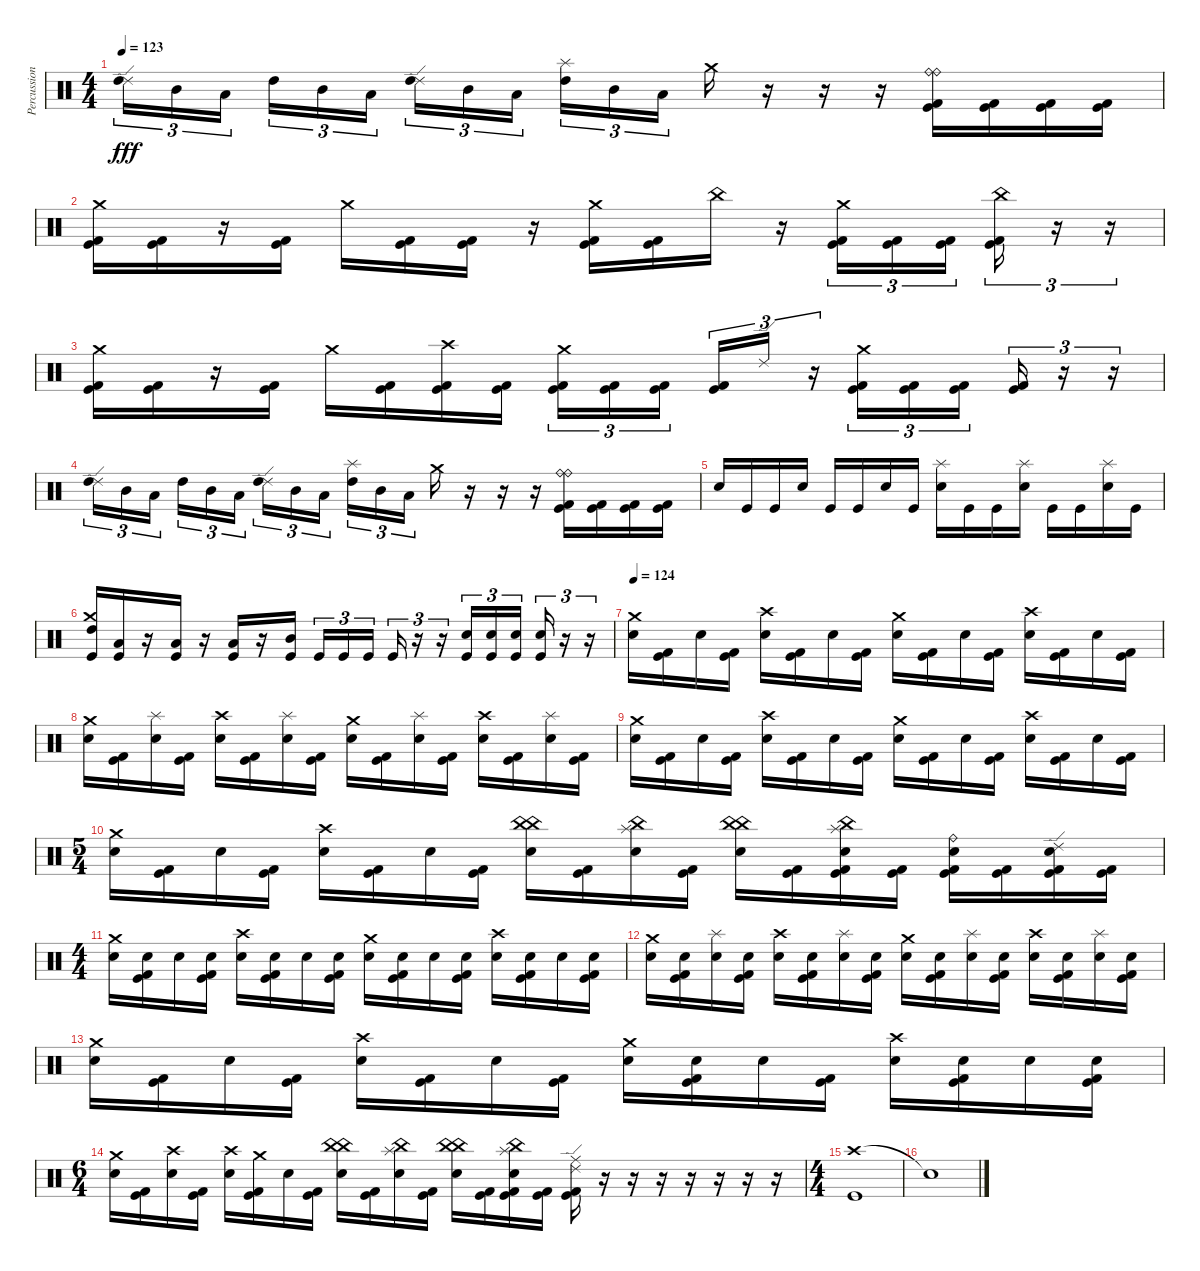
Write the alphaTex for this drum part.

\track ("Percussion" "Percussion") {instrument percussion}
\staff {score}
\articulation defaults
\ts (4 4)
\tempo 123
\clef neutral
\ks c
("Ride (edge) 2" "High Tom (hit)").16{tu (3 2) dy fff} "Mid Tom (hit)".16{tu (3 2)} "Low Tom (hit)".16{tu (3 2) beam splitsecondary} "High Tom (hit)".16{tu (3 2)} "Mid Tom (hit)".16{tu (3 2)} "Low Tom (hit)".16{tu (3 2)} ("Ride (edge) 2" "High Tom (hit)").16{tu (3 2)} "Mid Tom (hit)".16{tu (3 2)} "Low Tom (hit)".16{tu (3 2) beam splitsecondary} ("Splash (hit)" "High Tom (hit)").16{tu (3 2)} "Mid Tom (hit)".16{tu (3 2)} "Low Tom (hit)".16{tu (3 2)} "Crash medium (hit)".16 r.16 r.16 r.16 ("Ride (bell)" "Ride (bell)" "Kick (hit) 2" "Kick (hit)").16 ("Kick (hit) 2" "Kick (hit)").16 ("Kick (hit) 2" "Kick (hit)").16 ("Kick (hit) 2" "Kick (hit)").16 |
("Crash medium (hit)" "Kick (hit) 2" "Kick (hit)").16 ("Kick (hit) 2" "Kick (hit)").16 r.16 ("Kick (hit) 2" "Kick (hit)").16 "Crash medium (hit)".16 ("Kick (hit) 2" "Kick (hit)").16 ("Kick (hit) 2" "Kick (hit)").16 r.16 ("Crash medium (hit)" "Kick (hit) 2" "Kick (hit)").16 ("Kick (hit) 2" "Kick (hit)").16 "China (hit)".16 r.16 ("Crash medium (hit)" "Kick (hit) 2" "Kick (hit)").16{tu (3 2)} ("Kick (hit) 2" "Kick (hit)").16{tu (3 2)} ("Kick (hit) 2" "Kick (hit)").16{tu (3 2) beam splitsecondary} ("China (hit)" "Kick (hit) 2" "Kick (hit)").16{tu (3 2)} r.16{tu (3 2)} r.16{tu (3 2)} |
("Crash medium (hit)" "Kick (hit) 2" "Kick (hit)").16 ("Kick (hit) 2" "Kick (hit)").16 r.16 ("Kick (hit) 2" "Kick (hit)").16 "Crash medium (hit)".16 ("Kick (hit) 2" "Kick (hit)").16 ("Crash high (hit)" "Kick (hit) 2" "Kick (hit)").16 ("Kick (hit) 2" "Kick (hit)").16 ("Crash medium (hit)" "Kick (hit) 2" "Kick (hit)").16{tu (3 2)} ("Kick (hit) 2" "Kick (hit)").16{tu (3 2)} ("Kick (hit) 2" "Kick (hit)").16{tu (3 2) beam splitsecondary} ("Kick (hit) 2" "Kick (hit)").16{tu (3 2)} "Ride (edge) 2".16{tu (3 2)} r.16{tu (3 2)} ("Crash medium (hit)" "Kick (hit) 2" "Kick (hit)").16{tu (3 2)} ("Kick (hit) 2" "Kick (hit)").16{tu (3 2)} ("Kick (hit) 2" "Kick (hit)").16{tu (3 2) beam splitsecondary} ("Kick (hit) 2" "Kick (hit)").16{tu (3 2)} r.16{tu (3 2)} r.16{tu (3 2)} |
("Ride (edge) 2" "High Tom (hit)").16{tu (3 2)} "Mid Tom (hit)".16{tu (3 2)} "Low Tom (hit)".16{tu (3 2) beam splitsecondary} "High Tom (hit)".16{tu (3 2)} "Mid Tom (hit)".16{tu (3 2)} "Low Tom (hit)".16{tu (3 2)} ("Ride (edge) 2" "High Tom (hit)").16{tu (3 2)} "Mid Tom (hit)".16{tu (3 2)} "Low Tom (hit)".16{tu (3 2) beam splitsecondary} ("Splash (hit)" "High Tom (hit)").16{tu (3 2)} "Mid Tom (hit)".16{tu (3 2)} "Low Tom (hit)".16{tu (3 2)} "Crash medium (hit)".16 r.16 r.16 r.16 ("Ride (bell)" "Ride (bell)" "Kick (hit) 2" "Kick (hit)").16 ("Kick (hit) 2" "Kick (hit)").16 ("Kick (hit) 2" "Kick (hit)").16 ("Kick (hit) 2" "Kick (hit)").16 |
"Electric Snare (hit)".16 "Kick (hit)".16 "Kick (hit)".16 "Electric Snare (hit)".16 "Kick (hit)".16 "Kick (hit)".16 "Electric Snare (hit)".16 "Kick (hit)".16 ("Splash (hit)" "Electric Snare (hit)").16 "Kick (hit)".16 "Kick (hit)".16 ("Splash (hit)" "Electric Snare (hit)").16 "Kick (hit)".16 "Kick (hit)".16 ("Splash (hit)" "Electric Snare (hit)").16 "Kick (hit)".16 |
("Crash medium (hit)" "High Tom (hit)" "Kick (hit)").16 ("Low Tom (hit)" "Kick (hit)").16 r.16 ("Low Tom (hit)" "Kick (hit)").16 r.16 ("Low Tom (hit)" "Kick (hit)").16 r.16 ("Mid Tom (hit)" "Kick (hit)").16 "Kick (hit)".16{tu (3 2)} "Kick (hit)".16{tu (3 2)} "Kick (hit)".16{tu (3 2) beam splitsecondary} "Kick (hit)".16{tu (3 2)} r.16{tu (3 2)} r.16{tu (3 2)} ("Electric Snare (hit)" "Kick (hit)").16{tu (3 2)} ("Electric Snare (hit)" "Kick (hit)").16{tu (3 2)} ("Electric Snare (hit)" "Kick (hit)").16{tu (3 2) beam splitsecondary} ("Electric Snare (hit)" "Kick (hit)").16{tu (3 2)} r.16{tu (3 2)} r.16{tu (3 2)} |
\tempo 124
("Crash medium (hit)" "Electric Snare (hit)").16 ("Kick (hit) 2" "Kick (hit)").16 "Electric Snare (hit)".16 ("Kick (hit) 2" "Kick (hit)").16 ("Crash high (hit)" "Electric Snare (hit)").16 ("Kick (hit) 2" "Kick (hit)").16 "Electric Snare (hit)".16 ("Kick (hit) 2" "Kick (hit)").16 ("Crash medium (hit)" "Electric Snare (hit)").16 ("Kick (hit) 2" "Kick (hit)").16 "Electric Snare (hit)".16 ("Kick (hit) 2" "Kick (hit)").16 ("Crash high (hit)" "Electric Snare (hit)").16 ("Kick (hit) 2" "Kick (hit)").16 "Electric Snare (hit)".16 ("Kick (hit) 2" "Kick (hit)").16 |
("Crash medium (hit)" "Electric Snare (hit)").16 ("Kick (hit) 2" "Kick (hit)").16 ("Splash (hit)" "Electric Snare (hit)").16 ("Kick (hit) 2" "Kick (hit)").16 ("Crash high (hit)" "Electric Snare (hit)").16 ("Kick (hit) 2" "Kick (hit)").16 ("Splash (hit)" "Electric Snare (hit)").16 ("Kick (hit) 2" "Kick (hit)").16 ("Crash medium (hit)" "Electric Snare (hit)").16 ("Kick (hit) 2" "Kick (hit)").16 ("Splash (hit)" "Electric Snare (hit)").16 ("Kick (hit) 2" "Kick (hit)").16 ("Crash high (hit)" "Electric Snare (hit)").16 ("Kick (hit) 2" "Kick (hit)").16 ("Splash (hit)" "Electric Snare (hit)").16 ("Kick (hit) 2" "Kick (hit)").16 |
("Crash medium (hit)" "Electric Snare (hit)").16 ("Kick (hit) 2" "Kick (hit)").16 "Electric Snare (hit)".16 ("Kick (hit) 2" "Kick (hit)").16 ("Crash high (hit)" "Electric Snare (hit)").16 ("Kick (hit) 2" "Kick (hit)").16 "Electric Snare (hit)".16 ("Kick (hit) 2" "Kick (hit)").16 ("Crash medium (hit)" "Electric Snare (hit)").16 ("Kick (hit) 2" "Kick (hit)").16 "Electric Snare (hit)".16 ("Kick (hit) 2" "Kick (hit)").16 ("Crash high (hit)" "Electric Snare (hit)").16 ("Kick (hit) 2" "Kick (hit)").16 "Electric Snare (hit)".16 ("Kick (hit) 2" "Kick (hit)").16 |
\ts (5 4)
("Crash medium (hit)" "Electric Snare (hit)").16 ("Kick (hit) 2" "Kick (hit)").16 "Electric Snare (hit)".16 ("Kick (hit) 2" "Kick (hit)").16 ("Crash high (hit)" "Electric Snare (hit)").16 ("Kick (hit) 2" "Kick (hit)").16 "Electric Snare (hit)".16 ("Kick (hit) 2" "Kick (hit)").16 ("China (hit)" "China (hit)" "Electric Snare (hit)").16 ("Kick (hit) 2" "Kick (hit)").16 ("Splash (hit)" "China (hit)" "Electric Snare (hit)").16 ("Kick (hit) 2" "Kick (hit)").16 ("China (hit)" "China (hit)" "Electric Snare (hit)").16 ("Kick (hit) 2" "Kick (hit)").16 ("Kick (hit) 2" "Splash (hit)" "China (hit)" "Electric Snare (hit)" "Kick (hit)").16 ("Kick (hit) 2" "Kick (hit)").16 ("Kick (hit) 2" "Ride (bell)" "Electric Snare (hit)" "Kick (hit)").16 ("Kick (hit) 2" "Kick (hit)").16 ("Kick (hit) 2" "Ride (edge) 2" "Electric Snare (hit)" "Kick (hit)").16 ("Kick (hit) 2" "Kick (hit)").16 |
\ts (4 4)
("Crash medium (hit)" "Electric Snare (hit)").16 ("Kick (hit) 2" "Electric Snare (hit)" "Kick (hit)").16 "Electric Snare (hit)".16 ("Kick (hit) 2" "Electric Snare (hit)" "Kick (hit)").16 ("Crash high (hit)" "Electric Snare (hit)").16 ("Kick (hit) 2" "Electric Snare (hit)" "Kick (hit)").16 "Electric Snare (hit)".16 ("Kick (hit) 2" "Electric Snare (hit)" "Kick (hit)").16 ("Crash medium (hit)" "Electric Snare (hit)").16 ("Kick (hit) 2" "Electric Snare (hit)" "Kick (hit)").16 "Electric Snare (hit)".16 ("Kick (hit) 2" "Electric Snare (hit)" "Kick (hit)").16 ("Crash high (hit)" "Electric Snare (hit)").16 ("Kick (hit) 2" "Electric Snare (hit)" "Kick (hit)").16 "Electric Snare (hit)".16 ("Kick (hit) 2" "Electric Snare (hit)" "Kick (hit)").16 |
("Crash medium (hit)" "Electric Snare (hit)").16 ("Kick (hit) 2" "Electric Snare (hit)" "Kick (hit)").16 ("Splash (hit)" "Electric Snare (hit)").16 ("Kick (hit) 2" "Electric Snare (hit)" "Kick (hit)").16 ("Crash high (hit)" "Electric Snare (hit)").16 ("Kick (hit) 2" "Electric Snare (hit)" "Kick (hit)").16 ("Splash (hit)" "Electric Snare (hit)").16 ("Kick (hit) 2" "Electric Snare (hit)" "Kick (hit)").16 ("Crash medium (hit)" "Electric Snare (hit)").16 ("Kick (hit) 2" "Electric Snare (hit)" "Kick (hit)").16 ("Splash (hit)" "Electric Snare (hit)").16 ("Kick (hit) 2" "Electric Snare (hit)" "Kick (hit)").16 ("Crash high (hit)" "Electric Snare (hit)").16 ("Kick (hit) 2" "Electric Snare (hit)" "Kick (hit)").16 ("Splash (hit)" "Electric Snare (hit)").16 ("Kick (hit) 2" "Electric Snare (hit)" "Kick (hit)").16 |
("Crash medium (hit)" "Electric Snare (hit)").16 ("Kick (hit) 2" "Kick (hit)").16 "Electric Snare (hit)".16 ("Kick (hit) 2" "Kick (hit)").16 ("Crash high (hit)" "Electric Snare (hit)").16 ("Kick (hit) 2" "Kick (hit)").16 "Electric Snare (hit)".16 ("Kick (hit) 2" "Kick (hit)").16 ("Crash medium (hit)" "Electric Snare (hit)").16 ("Kick (hit) 2" "Electric Snare (hit)" "Kick (hit)").16 "Electric Snare (hit)".16 ("Kick (hit) 2" "Kick (hit)").16 ("Crash high (hit)" "Electric Snare (hit)").16 ("Kick (hit) 2" "Electric Snare (hit)" "Kick (hit)").16 "Electric Snare (hit)".16 ("Kick (hit) 2" "Electric Snare (hit)" "Kick (hit)").16 |
\ts (6 4)
("Crash medium (hit)" "Electric Snare (hit)").16 ("Kick (hit) 2" "Kick (hit)").16 ("Crash high (hit)" "Electric Snare (hit)").16 ("Kick (hit) 2" "Kick (hit)").16 ("Crash high (hit)" "Electric Snare (hit)").16 ("Kick (hit) 2" "Crash medium (hit)" "Kick (hit)").16 "Electric Snare (hit)".16 ("Kick (hit) 2" "Kick (hit)").16 ("China (hit)" "China (hit)" "Electric Snare (hit)").16 ("Kick (hit) 2" "Kick (hit)").16 ("Splash (hit)" "China (hit)" "Electric Snare (hit)").16 ("Kick (hit) 2" "Kick (hit)").16 ("China (hit)" "China (hit)" "Electric Snare (hit)").16 ("Kick (hit) 2" "Kick (hit)").16 ("Kick (hit) 2" "Splash (hit)" "China (hit)" "Electric Snare (hit)" "Kick (hit)").16 ("Kick (hit) 2" "Kick (hit)").16 ("Kick (hit) 2" "Ride (middle)" "Ride (edge) 2" "Kick (hit)").16 r.16 r.16 r.16 r.16 r.16 r.16 r.16 |
\ts (4 4)
("Crash high (hit)" "Kick (hit)").1 |
"Snare (hit)"{t}.1
